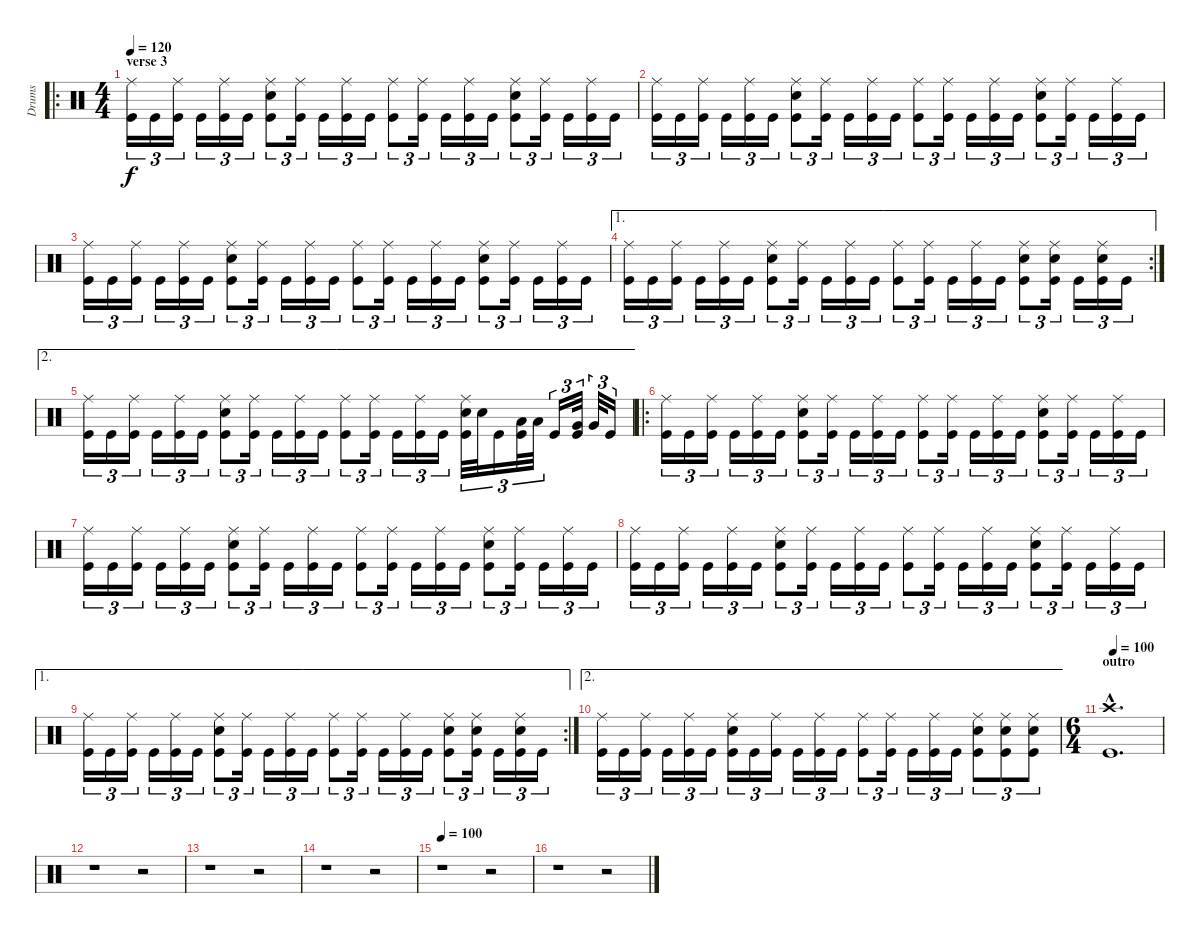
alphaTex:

\track ("Drums" "Drums") {instrument percussion}
\staff {score}
\articulation defaults
\ro
\ts (4 4)
\section ("" "verse 3")
\tempo 120
\clef neutral
\ks c
("Ride (middle)" "Kick (hit)").16{tu (3 2) dy f} "Kick (hit)".16{tu (3 2)} ("Ride (middle)" "Kick (hit)").16{tu (3 2)} "Kick (hit)".16{tu (3 2)} ("Ride (middle)" "Kick (hit)").16{tu (3 2)} "Kick (hit)".16{tu (3 2)} ("Ride (middle)" "Snare (hit) 2" "Kick (hit)").8{tu (3 2)} ("Ride (middle)" "Kick (hit)").16{tu (3 2)} "Kick (hit)".16{tu (3 2)} ("Ride (middle)" "Kick (hit)").16{tu (3 2)} "Kick (hit)".16{tu (3 2)} ("Ride (middle)" "Kick (hit)").8{tu (3 2)} ("Ride (middle)" "Kick (hit)").16{tu (3 2)} "Kick (hit)".16{tu (3 2)} ("Ride (middle)" "Kick (hit)").16{tu (3 2)} "Kick (hit)".16{tu (3 2)} ("Ride (middle)" "Snare (hit) 2" "Kick (hit)").8{tu (3 2)} ("Ride (middle)" "Kick (hit)").16{tu (3 2)} "Kick (hit)".16{tu (3 2)} ("Ride (middle)" "Kick (hit)").16{tu (3 2)} "Kick (hit)".16{tu (3 2)} |
("Ride (middle)" "Kick (hit)").16{tu (3 2)} "Kick (hit)".16{tu (3 2)} ("Ride (middle)" "Kick (hit)").16{tu (3 2)} "Kick (hit)".16{tu (3 2)} ("Ride (middle)" "Kick (hit)").16{tu (3 2)} "Kick (hit)".16{tu (3 2)} ("Ride (middle)" "Snare (hit) 2" "Kick (hit)").8{tu (3 2)} ("Ride (middle)" "Kick (hit)").16{tu (3 2)} "Kick (hit)".16{tu (3 2)} ("Ride (middle)" "Kick (hit)").16{tu (3 2)} "Kick (hit)".16{tu (3 2)} ("Ride (middle)" "Kick (hit)").8{tu (3 2)} ("Ride (middle)" "Kick (hit)").16{tu (3 2)} "Kick (hit)".16{tu (3 2)} ("Ride (middle)" "Kick (hit)").16{tu (3 2)} "Kick (hit)".16{tu (3 2)} ("Ride (middle)" "Snare (hit) 2" "Kick (hit)").8{tu (3 2)} ("Ride (middle)" "Kick (hit)").16{tu (3 2)} "Kick (hit)".16{tu (3 2)} ("Ride (middle)" "Kick (hit)").16{tu (3 2)} "Kick (hit)".16{tu (3 2)} |
("Ride (middle)" "Kick (hit)").16{tu (3 2)} "Kick (hit)".16{tu (3 2)} ("Ride (middle)" "Kick (hit)").16{tu (3 2)} "Kick (hit)".16{tu (3 2)} ("Ride (middle)" "Kick (hit)").16{tu (3 2)} "Kick (hit)".16{tu (3 2)} ("Ride (middle)" "Snare (hit) 2" "Kick (hit)").8{tu (3 2)} ("Ride (middle)" "Kick (hit)").16{tu (3 2)} "Kick (hit)".16{tu (3 2)} ("Ride (middle)" "Kick (hit)").16{tu (3 2)} "Kick (hit)".16{tu (3 2)} ("Ride (middle)" "Kick (hit)").8{tu (3 2)} ("Ride (middle)" "Kick (hit)").16{tu (3 2)} "Kick (hit)".16{tu (3 2)} ("Ride (middle)" "Kick (hit)").16{tu (3 2)} "Kick (hit)".16{tu (3 2)} ("Ride (middle)" "Snare (hit) 2" "Kick (hit)").8{tu (3 2)} ("Ride (middle)" "Kick (hit)").16{tu (3 2)} "Kick (hit)".16{tu (3 2)} ("Ride (middle)" "Kick (hit)").16{tu (3 2)} "Kick (hit)".16{tu (3 2)} |
\ae 1
\rc 2
("Ride (middle)" "Kick (hit)").16{tu (3 2)} "Kick (hit)".16{tu (3 2)} ("Ride (middle)" "Kick (hit)").16{tu (3 2)} "Kick (hit)".16{tu (3 2)} ("Ride (middle)" "Kick (hit)").16{tu (3 2)} "Kick (hit)".16{tu (3 2)} ("Ride (middle)" "Snare (hit) 2" "Kick (hit)").8{tu (3 2)} ("Ride (middle)" "Kick (hit)").16{tu (3 2)} "Kick (hit)".16{tu (3 2)} ("Ride (middle)" "Kick (hit)").16{tu (3 2)} "Kick (hit)".16{tu (3 2)} ("Ride (middle)" "Kick (hit)").8{tu (3 2)} ("Ride (middle)" "Kick (hit)").16{tu (3 2)} "Kick (hit)".16{tu (3 2)} ("Ride (middle)" "Kick (hit)").16{tu (3 2)} "Kick (hit)".16{tu (3 2)} ("Ride (middle)" "Snare (hit) 2" "Kick (hit)").8{tu (3 2)} ("Ride (middle)" "Snare (hit) 2" "Kick (hit)").16{tu (3 2)} "Kick (hit)".16{tu (3 2)} ("Ride (middle)" "Snare (hit) 2" "Kick (hit)").16{tu (3 2)} "Kick (hit)".16{tu (3 2)} |
\ae 2
("Ride (middle)" "Kick (hit)").16{tu (3 2)} "Kick (hit)".16{tu (3 2)} ("Ride (middle)" "Kick (hit)").16{tu (3 2)} "Kick (hit)".16{tu (3 2)} ("Ride (middle)" "Kick (hit)").16{tu (3 2)} "Kick (hit)".16{tu (3 2)} ("Ride (middle)" "Snare (hit) 2" "Kick (hit)").8{tu (3 2)} ("Ride (middle)" "Kick (hit)").16{tu (3 2)} "Kick (hit)".16{tu (3 2)} ("Ride (middle)" "Kick (hit)").16{tu (3 2)} "Kick (hit)".16{tu (3 2)} ("Ride (middle)" "Kick (hit)").8{tu (3 2)} ("Ride (middle)" "Kick (hit)").16{tu (3 2)} "Kick (hit)".16{tu (3 2)} ("Ride (middle)" "Kick (hit)").16{tu (3 2)} "Kick (hit)".16{tu (3 2)} ("Ride (middle)" "Snare (hit) 2" "Kick (hit)").32{tu (3 2)} "Snare (hit) 2".32{tu (3 2)} "Kick (hit)".16{tu (3 2)} ("Low Tom (hit)" "Kick (hit)").32{tu (3 2)} "Low Tom (hit)".32{tu (3 2)} "Kick (hit)".16{tu (3 2)} ("Very Low Tom (hit)" "Kick (hit)").32{tu (3 2)} "Very Low Tom (hit)".32{tu (3 2)} "Kick (hit)".16{tu (3 2)} |
\ro
("Ride (middle)" "Kick (hit)").16{tu (3 2)} "Kick (hit)".16{tu (3 2)} ("Ride (middle)" "Kick (hit)").16{tu (3 2)} "Kick (hit)".16{tu (3 2)} ("Ride (middle)" "Kick (hit)").16{tu (3 2)} "Kick (hit)".16{tu (3 2)} ("Ride (middle)" "Snare (hit) 2" "Kick (hit)").8{tu (3 2)} ("Ride (middle)" "Kick (hit)").16{tu (3 2)} "Kick (hit)".16{tu (3 2)} ("Ride (middle)" "Kick (hit)").16{tu (3 2)} "Kick (hit)".16{tu (3 2)} ("Ride (middle)" "Kick (hit)").8{tu (3 2)} ("Ride (middle)" "Kick (hit)").16{tu (3 2)} "Kick (hit)".16{tu (3 2)} ("Ride (middle)" "Kick (hit)").16{tu (3 2)} "Kick (hit)".16{tu (3 2)} ("Ride (middle)" "Snare (hit) 2" "Kick (hit)").8{tu (3 2)} ("Ride (middle)" "Kick (hit)").16{tu (3 2)} "Kick (hit)".16{tu (3 2)} ("Ride (middle)" "Kick (hit)").16{tu (3 2)} "Kick (hit)".16{tu (3 2)} |
("Ride (middle)" "Kick (hit)").16{tu (3 2)} "Kick (hit)".16{tu (3 2)} ("Ride (middle)" "Kick (hit)").16{tu (3 2)} "Kick (hit)".16{tu (3 2)} ("Ride (middle)" "Kick (hit)").16{tu (3 2)} "Kick (hit)".16{tu (3 2)} ("Ride (middle)" "Snare (hit) 2" "Kick (hit)").8{tu (3 2)} ("Ride (middle)" "Kick (hit)").16{tu (3 2)} "Kick (hit)".16{tu (3 2)} ("Ride (middle)" "Kick (hit)").16{tu (3 2)} "Kick (hit)".16{tu (3 2)} ("Ride (middle)" "Kick (hit)").8{tu (3 2)} ("Ride (middle)" "Kick (hit)").16{tu (3 2)} "Kick (hit)".16{tu (3 2)} ("Ride (middle)" "Kick (hit)").16{tu (3 2)} "Kick (hit)".16{tu (3 2)} ("Ride (middle)" "Snare (hit) 2" "Kick (hit)").8{tu (3 2)} ("Ride (middle)" "Kick (hit)").16{tu (3 2)} "Kick (hit)".16{tu (3 2)} ("Ride (middle)" "Kick (hit)").16{tu (3 2)} "Kick (hit)".16{tu (3 2)} |
("Ride (middle)" "Kick (hit)").16{tu (3 2)} "Kick (hit)".16{tu (3 2)} ("Ride (middle)" "Kick (hit)").16{tu (3 2)} "Kick (hit)".16{tu (3 2)} ("Ride (middle)" "Kick (hit)").16{tu (3 2)} "Kick (hit)".16{tu (3 2)} ("Ride (middle)" "Snare (hit) 2" "Kick (hit)").8{tu (3 2)} ("Ride (middle)" "Kick (hit)").16{tu (3 2)} "Kick (hit)".16{tu (3 2)} ("Ride (middle)" "Kick (hit)").16{tu (3 2)} "Kick (hit)".16{tu (3 2)} ("Ride (middle)" "Kick (hit)").8{tu (3 2)} ("Ride (middle)" "Kick (hit)").16{tu (3 2)} "Kick (hit)".16{tu (3 2)} ("Ride (middle)" "Kick (hit)").16{tu (3 2)} "Kick (hit)".16{tu (3 2)} ("Ride (middle)" "Snare (hit) 2" "Kick (hit)").8{tu (3 2)} ("Ride (middle)" "Kick (hit)").16{tu (3 2)} "Kick (hit)".16{tu (3 2)} ("Ride (middle)" "Kick (hit)").16{tu (3 2)} "Kick (hit)".16{tu (3 2)} |
\ae 1
\rc 2
("Ride (middle)" "Kick (hit)").16{tu (3 2)} "Kick (hit)".16{tu (3 2)} ("Ride (middle)" "Kick (hit)").16{tu (3 2)} "Kick (hit)".16{tu (3 2)} ("Ride (middle)" "Kick (hit)").16{tu (3 2)} "Kick (hit)".16{tu (3 2)} ("Ride (middle)" "Snare (hit) 2" "Kick (hit)").8{tu (3 2)} ("Ride (middle)" "Kick (hit)").16{tu (3 2)} "Kick (hit)".16{tu (3 2)} ("Ride (middle)" "Kick (hit)").16{tu (3 2)} "Kick (hit)".16{tu (3 2)} ("Ride (middle)" "Kick (hit)").8{tu (3 2)} ("Ride (middle)" "Kick (hit)").16{tu (3 2)} "Kick (hit)".16{tu (3 2)} ("Ride (middle)" "Kick (hit)").16{tu (3 2)} "Kick (hit)".16{tu (3 2)} ("Ride (middle)" "Snare (hit) 2" "Kick (hit)").8{tu (3 2)} ("Ride (middle)" "Snare (hit) 2" "Kick (hit)").16{tu (3 2)} "Kick (hit)".16{tu (3 2)} ("Ride (middle)" "Snare (hit) 2" "Kick (hit)").16{tu (3 2)} "Kick (hit)".16{tu (3 2)} |
\ae 2
("Ride (middle)" "Kick (hit)").16{tu (3 2)} "Kick (hit)".16{tu (3 2)} ("Ride (middle)" "Kick (hit)").16{tu (3 2)} "Kick (hit)".16{tu (3 2)} ("Ride (middle)" "Kick (hit)").16{tu (3 2)} "Kick (hit)".16{tu (3 2)} ("Ride (middle)" "Snare (hit) 2" "Kick (hit)").16{tu (3 2)} "Kick (hit)".16{tu (3 2)} ("Ride (middle)" "Kick (hit)").16{tu (3 2)} "Kick (hit)".16{tu (3 2)} ("Ride (middle)" "Kick (hit)").16{tu (3 2)} "Kick (hit)".16{tu (3 2)} ("Ride (middle)" "Kick (hit)").8{tu (3 2)} ("Ride (middle)" "Kick (hit)").16{tu (3 2)} "Kick (hit)".16{tu (3 2)} ("Ride (middle)" "Kick (hit)").16{tu (3 2)} "Kick (hit)".16{tu (3 2)} ("Ride (middle)" "Snare (hit) 2" "Kick (hit)").8{tu (3 2)} ("Ride (middle)" "Snare (hit) 2" "Kick (hit)").8{tu (3 2)} ("Ride (middle)" "Snare (hit) 2" "Kick (hit)").8{tu (3 2)} |
\ts (6 4)
\section ("" "outro")
\tempo (100 0.08333333333333333)
("Crash high (hit)"{hac} "Kick (hit)"{hac}).1{d} |
r.1 r.2 |
r.1 r.2 |
r.1 r.2 |
\tempo 100
r.1 r.2 |
r.1 r.2
